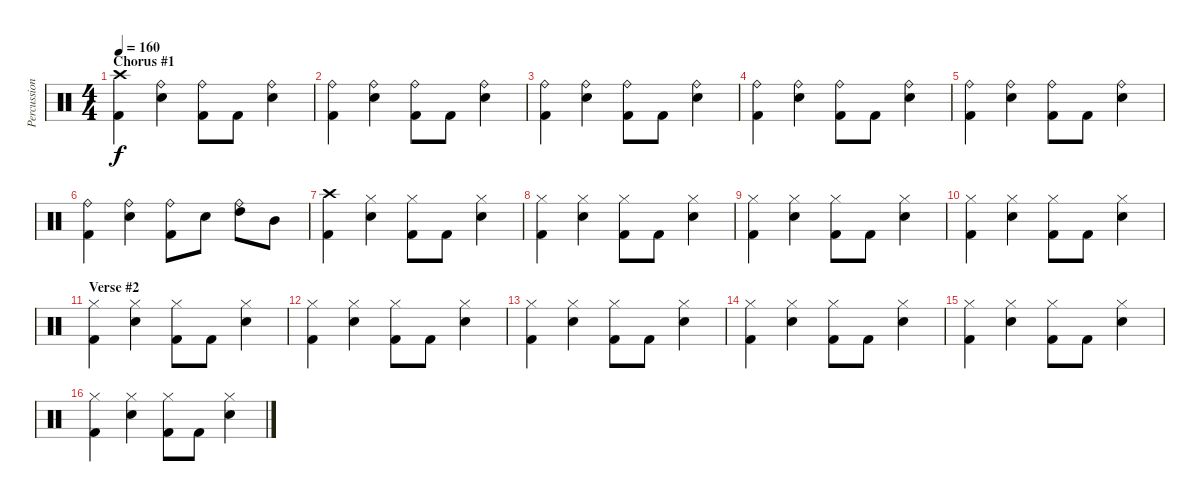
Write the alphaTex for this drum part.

\track ("Percussion" "Percussion") {instrument percussion}
\staff {score}
\articulation defaults
\ts (4 4)
\section ("" "Chorus #1")
\tempo 160
\clef neutral
\ks c
("Crash high (hit)" "Kick (hit) 2").4{dy f} ("Ride (bell)" "Electric Snare (hit)").4 ("Ride (bell)" "Kick (hit) 2").8 "Kick (hit) 2".8 ("Ride (bell)" "Electric Snare (hit)").4 |
("Ride (bell)" "Kick (hit) 2").4 ("Ride (bell)" "Electric Snare (hit)").4 ("Ride (bell)" "Kick (hit) 2").8 "Kick (hit) 2".8 ("Ride (bell)" "Electric Snare (hit)").4 |
("Ride (bell)" "Kick (hit) 2").4 ("Ride (bell)" "Electric Snare (hit)").4 ("Ride (bell)" "Kick (hit) 2").8 "Kick (hit) 2".8 ("Ride (bell)" "Electric Snare (hit)").4 |
("Ride (bell)" "Kick (hit) 2").4 ("Ride (bell)" "Electric Snare (hit)").4 ("Ride (bell)" "Kick (hit) 2").8 "Kick (hit) 2".8 ("Ride (bell)" "Electric Snare (hit)").4 |
("Ride (bell)" "Kick (hit) 2").4 ("Ride (bell)" "Electric Snare (hit)").4 ("Ride (bell)" "Kick (hit) 2").8 "Kick (hit) 2".8 ("Ride (bell)" "Electric Snare (hit)").4 |
("Ride (bell)" "Kick (hit) 2").4 ("Ride (bell)" "Electric Snare (hit)").4 ("Ride (bell)" "Kick (hit) 2").8 "Electric Snare (hit)".8 ("Ride (bell)" "High Tom (hit)").8 "Mid Tom (hit)".8 |
("Crash high (hit)" "Kick (hit) 2").4 ("Hi-Hat (closed)" "Electric Snare (hit)").4 ("Hi-Hat (closed)" "Kick (hit) 2").8 "Kick (hit) 2".8 ("Hi-Hat (closed)" "Electric Snare (hit)").4 |
("Hi-Hat (closed)" "Kick (hit) 2").4 ("Hi-Hat (closed)" "Electric Snare (hit)").4 ("Hi-Hat (closed)" "Kick (hit) 2").8 "Kick (hit) 2".8 ("Hi-Hat (closed)" "Electric Snare (hit)").4 |
("Hi-Hat (closed)" "Kick (hit) 2").4 ("Hi-Hat (closed)" "Electric Snare (hit)").4 ("Hi-Hat (closed)" "Kick (hit) 2").8 "Kick (hit) 2".8 ("Hi-Hat (closed)" "Electric Snare (hit)").4 |
("Hi-Hat (closed)" "Kick (hit) 2").4 ("Hi-Hat (closed)" "Electric Snare (hit)").4 ("Hi-Hat (closed)" "Kick (hit) 2").8 "Kick (hit) 2".8 ("Hi-Hat (closed)" "Electric Snare (hit)").4 |
\section ("" "Verse #2")
("Hi-Hat (closed)" "Kick (hit) 2").4 ("Hi-Hat (closed)" "Electric Snare (hit)").4 ("Hi-Hat (closed)" "Kick (hit) 2").8 "Kick (hit) 2".8 ("Hi-Hat (closed)" "Electric Snare (hit)").4 |
("Hi-Hat (closed)" "Kick (hit) 2").4 ("Hi-Hat (closed)" "Electric Snare (hit)").4 ("Hi-Hat (closed)" "Kick (hit) 2").8 "Kick (hit) 2".8 ("Hi-Hat (closed)" "Electric Snare (hit)").4 |
("Hi-Hat (closed)" "Kick (hit) 2").4 ("Hi-Hat (closed)" "Electric Snare (hit)").4 ("Hi-Hat (closed)" "Kick (hit) 2").8 "Kick (hit) 2".8 ("Hi-Hat (closed)" "Electric Snare (hit)").4 |
("Hi-Hat (closed)" "Kick (hit) 2").4 ("Hi-Hat (closed)" "Electric Snare (hit)").4 ("Hi-Hat (closed)" "Kick (hit) 2").8 "Kick (hit) 2".8 ("Hi-Hat (closed)" "Electric Snare (hit)").4 |
("Hi-Hat (closed)" "Kick (hit) 2").4 ("Hi-Hat (closed)" "Electric Snare (hit)").4 ("Hi-Hat (closed)" "Kick (hit) 2").8 "Kick (hit) 2".8 ("Hi-Hat (closed)" "Electric Snare (hit)").4 |
("Hi-Hat (closed)" "Kick (hit) 2").4 ("Hi-Hat (closed)" "Electric Snare (hit)").4 ("Hi-Hat (closed)" "Kick (hit) 2").8 "Kick (hit) 2".8 ("Hi-Hat (closed)" "Electric Snare (hit)").4
